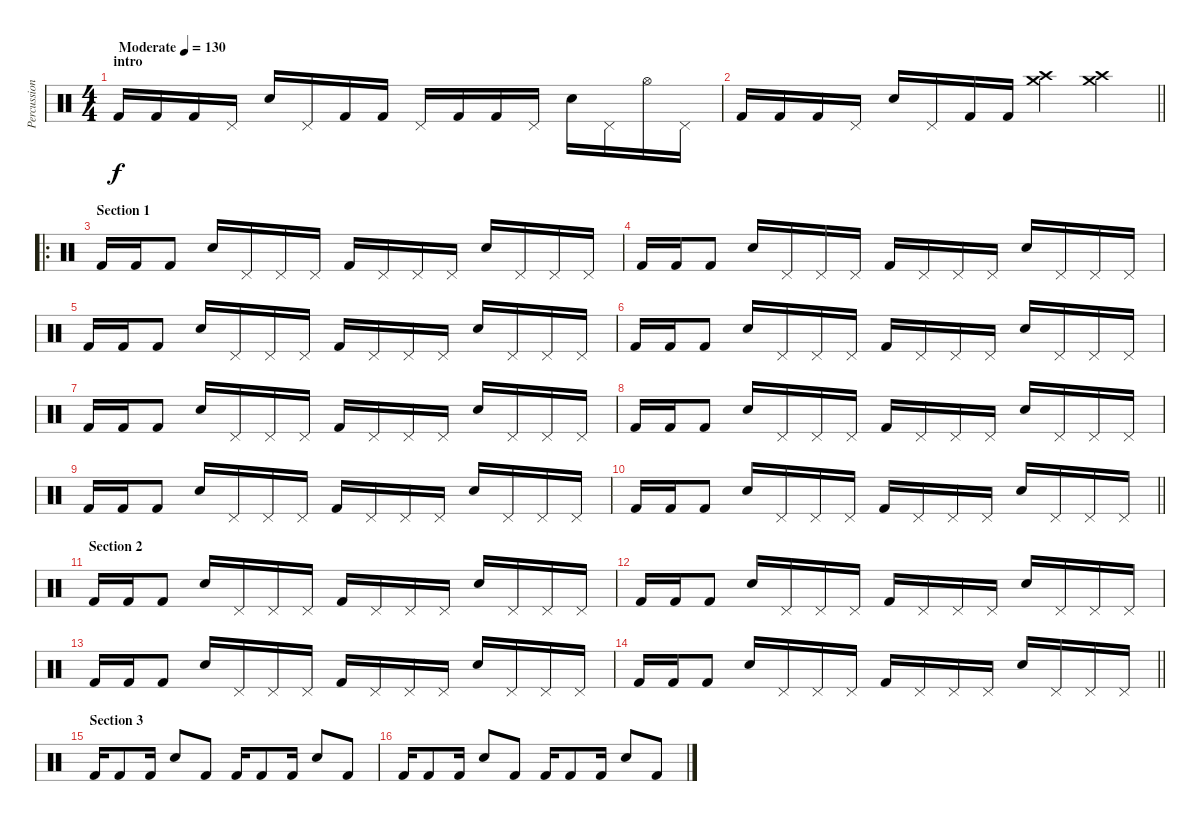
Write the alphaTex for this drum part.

\track ("Percussion" "Percussion") {instrument percussion}
\staff {score}
\articulation defaults
\ts (4 4)
\section ("" "intro")
\tempo (130 "Moderate")
\clef neutral
\ks c "Kick (hit) 2".16{dy f} "Kick (hit) 2".16 "Kick (hit) 2".16 "Pedal Hi-Hat (hit)".16 "Snare (hit) 2".16 "Pedal Hi-Hat (hit)".16 "Kick (hit) 2".16 "Kick (hit) 2".16 "Pedal Hi-Hat (hit)".16 "Kick (hit) 2".16 "Kick (hit) 2".16 "Pedal Hi-Hat (hit)".16 "Snare (hit) 2".16 "Pedal Hi-Hat (hit)".16 "Hi-Hat (open)".16 "Pedal Hi-Hat (hit)".16
|
\barLineRight lightlight "Kick (hit) 2".16 "Kick (hit) 2".16 "Kick (hit) 2".16 "Pedal Hi-Hat (hit)".16 "Snare (hit) 2".16 "Pedal Hi-Hat (hit)".16 "Kick (hit) 2".16 "Kick (hit) 2".16
("Crash high (hit)" "Crash medium (hit)").4 ("Crash high (hit)" "Crash medium (hit)").4 |
\ro
\section ("" "Section 1")
"Kick (hit) 2".16 "Kick (hit) 2".16 "Kick (hit) 2".8 "Snare (hit) 2".16 "Pedal Hi-Hat (hit)".16 "Pedal Hi-Hat (hit)".16 "Pedal Hi-Hat (hit)".16 "Kick (hit) 2".16 "Pedal Hi-Hat (hit)".16 "Pedal Hi-Hat (hit)".16 "Pedal Hi-Hat (hit)".16 "Snare (hit) 2".16 "Pedal Hi-Hat (hit)".16 "Pedal Hi-Hat (hit)".16 "Pedal Hi-Hat (hit)".16 |
"Kick (hit) 2".16 "Kick (hit) 2".16 "Kick (hit) 2".8 "Snare (hit) 2".16 "Pedal Hi-Hat (hit)".16 "Pedal Hi-Hat (hit)".16 "Pedal Hi-Hat (hit)".16 "Kick (hit) 2".16 "Pedal Hi-Hat (hit)".16 "Pedal Hi-Hat (hit)".16 "Pedal Hi-Hat (hit)".16 "Snare (hit) 2".16 "Pedal Hi-Hat (hit)".16 "Pedal Hi-Hat (hit)".16 "Pedal Hi-Hat (hit)".16 |
"Kick (hit) 2".16 "Kick (hit) 2".16 "Kick (hit) 2".8 "Snare (hit) 2".16 "Pedal Hi-Hat (hit)".16 "Pedal Hi-Hat (hit)".16 "Pedal Hi-Hat (hit)".16 "Kick (hit) 2".16 "Pedal Hi-Hat (hit)".16 "Pedal Hi-Hat (hit)".16 "Pedal Hi-Hat (hit)".16 "Snare (hit) 2".16 "Pedal Hi-Hat (hit)".16 "Pedal Hi-Hat (hit)".16 "Pedal Hi-Hat (hit)".16 |
"Kick (hit) 2".16 "Kick (hit) 2".16 "Kick (hit) 2".8 "Snare (hit) 2".16 "Pedal Hi-Hat (hit)".16 "Pedal Hi-Hat (hit)".16 "Pedal Hi-Hat (hit)".16 "Kick (hit) 2".16 "Pedal Hi-Hat (hit)".16 "Pedal Hi-Hat (hit)".16 "Pedal Hi-Hat (hit)".16 "Snare (hit) 2".16 "Pedal Hi-Hat (hit)".16 "Pedal Hi-Hat (hit)".16 "Pedal Hi-Hat (hit)".16 |
"Kick (hit) 2".16 "Kick (hit) 2".16 "Kick (hit) 2".8 "Snare (hit) 2".16 "Pedal Hi-Hat (hit)".16 "Pedal Hi-Hat (hit)".16 "Pedal Hi-Hat (hit)".16 "Kick (hit) 2".16 "Pedal Hi-Hat (hit)".16 "Pedal Hi-Hat (hit)".16 "Pedal Hi-Hat (hit)".16 "Snare (hit) 2".16 "Pedal Hi-Hat (hit)".16 "Pedal Hi-Hat (hit)".16 "Pedal Hi-Hat (hit)".16 |
"Kick (hit) 2".16 "Kick (hit) 2".16 "Kick (hit) 2".8 "Snare (hit) 2".16 "Pedal Hi-Hat (hit)".16 "Pedal Hi-Hat (hit)".16 "Pedal Hi-Hat (hit)".16 "Kick (hit) 2".16 "Pedal Hi-Hat (hit)".16 "Pedal Hi-Hat (hit)".16 "Pedal Hi-Hat (hit)".16 "Snare (hit) 2".16 "Pedal Hi-Hat (hit)".16 "Pedal Hi-Hat (hit)".16 "Pedal Hi-Hat (hit)".16 |
"Kick (hit) 2".16 "Kick (hit) 2".16 "Kick (hit) 2".8 "Snare (hit) 2".16 "Pedal Hi-Hat (hit)".16 "Pedal Hi-Hat (hit)".16 "Pedal Hi-Hat (hit)".16 "Kick (hit) 2".16 "Pedal Hi-Hat (hit)".16 "Pedal Hi-Hat (hit)".16 "Pedal Hi-Hat (hit)".16 "Snare (hit) 2".16 "Pedal Hi-Hat (hit)".16 "Pedal Hi-Hat (hit)".16 "Pedal Hi-Hat (hit)".16 |
\barLineRight lightlight "Kick (hit) 2".16 "Kick (hit) 2".16 "Kick (hit) 2".8 "Snare (hit) 2".16 "Pedal Hi-Hat (hit)".16 "Pedal Hi-Hat (hit)".16 "Pedal Hi-Hat (hit)".16 "Kick (hit) 2".16 "Pedal Hi-Hat (hit)".16 "Pedal Hi-Hat (hit)".16 "Pedal Hi-Hat (hit)".16 "Snare (hit) 2".16 "Pedal Hi-Hat (hit)".16 "Pedal Hi-Hat (hit)".16 "Pedal Hi-Hat (hit)".16
|
\section ("" "Section 2")
"Kick (hit) 2".16 "Kick (hit) 2".16 "Kick (hit) 2".8 "Snare (hit) 2".16 "Pedal Hi-Hat (hit)".16 "Pedal Hi-Hat (hit)".16 "Pedal Hi-Hat (hit)".16 "Kick (hit) 2".16 "Pedal Hi-Hat (hit)".16 "Pedal Hi-Hat (hit)".16 "Pedal Hi-Hat (hit)".16 "Snare (hit) 2".16 "Pedal Hi-Hat (hit)".16 "Pedal Hi-Hat (hit)".16 "Pedal Hi-Hat (hit)".16 |
"Kick (hit) 2".16 "Kick (hit) 2".16 "Kick (hit) 2".8 "Snare (hit) 2".16 "Pedal Hi-Hat (hit)".16 "Pedal Hi-Hat (hit)".16 "Pedal Hi-Hat (hit)".16 "Kick (hit) 2".16 "Pedal Hi-Hat (hit)".16 "Pedal Hi-Hat (hit)".16 "Pedal Hi-Hat (hit)".16 "Snare (hit) 2".16 "Pedal Hi-Hat (hit)".16 "Pedal Hi-Hat (hit)".16 "Pedal Hi-Hat (hit)".16 |
"Kick (hit) 2".16 "Kick (hit) 2".16 "Kick (hit) 2".8 "Snare (hit) 2".16 "Pedal Hi-Hat (hit)".16 "Pedal Hi-Hat (hit)".16 "Pedal Hi-Hat (hit)".16 "Kick (hit) 2".16 "Pedal Hi-Hat (hit)".16 "Pedal Hi-Hat (hit)".16 "Pedal Hi-Hat (hit)".16 "Snare (hit) 2".16 "Pedal Hi-Hat (hit)".16 "Pedal Hi-Hat (hit)".16 "Pedal Hi-Hat (hit)".16 |
\barLineRight lightlight "Kick (hit) 2".16 "Kick (hit) 2".16 "Kick (hit) 2".8 "Snare (hit) 2".16 "Pedal Hi-Hat (hit)".16 "Pedal Hi-Hat (hit)".16 "Pedal Hi-Hat (hit)".16 "Kick (hit) 2".16 "Pedal Hi-Hat (hit)".16 "Pedal Hi-Hat (hit)".16 "Pedal Hi-Hat (hit)".16 "Snare (hit) 2".16 "Pedal Hi-Hat (hit)".16 "Pedal Hi-Hat (hit)".16 "Pedal Hi-Hat (hit)".16
|
\section ("" "Section 3")
"Kick (hit) 2".16 "Kick (hit) 2".8 "Kick (hit) 2".16 "Snare (hit) 2".8 "Kick (hit) 2".8 "Kick (hit) 2".16 "Kick (hit) 2".8 "Kick (hit) 2".16 "Snare (hit) 2".8 "Kick (hit) 2".8 |
"Kick (hit) 2".16 "Kick (hit) 2".8 "Kick (hit) 2".16 "Snare (hit) 2".8 "Kick (hit) 2".8 "Kick (hit) 2".16 "Kick (hit) 2".8 "Kick (hit) 2".16 "Snare (hit) 2".8 "Kick (hit) 2".8
